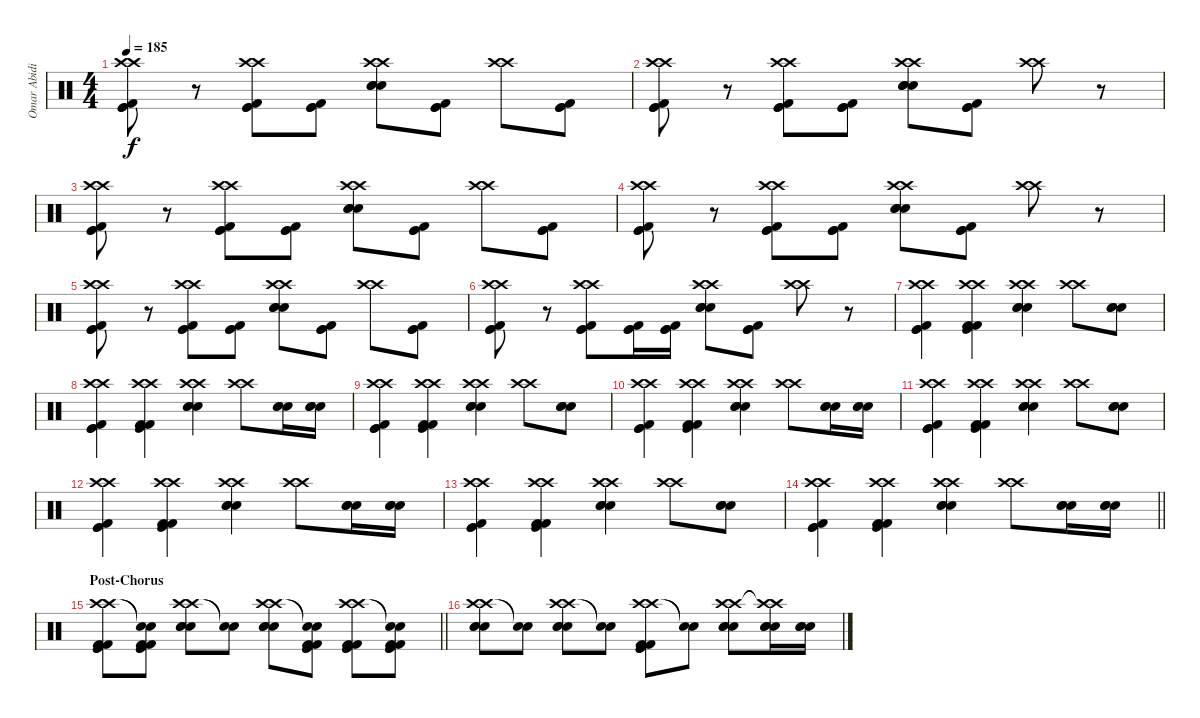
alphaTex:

\track ("Omar Abidi" "Omar Abidi") {instrument percussion}
\staff {score}
\articulation defaults
\ts (4 4)
\tempo 185
\clef neutral
\ks c
("Crash high (hit)" "Crash high (hit)" "Kick (hit) 2" "Kick (hit)" "Kick (hit)").8{dy f} r.8 ("Crash high (hit)" "Crash high (hit)" "Kick (hit) 2" "Kick (hit)" "Kick (hit)").8 ("Kick (hit) 2" "Kick (hit)" "Kick (hit)").8 ("Crash high (hit)" "Crash high (hit)" "Snare (hit) 2" "Electric Snare (hit)" "Snare (hit) 2").8 ("Kick (hit) 2" "Kick (hit)" "Kick (hit)").8 ("Crash high (hit)" "Crash high (hit)").8 ("Kick (hit) 2" "Kick (hit)" "Kick (hit)").8 |
("Crash high (hit)" "Crash high (hit)" "Kick (hit) 2" "Kick (hit)" "Kick (hit)").8 r.8 ("Crash high (hit)" "Crash high (hit)" "Kick (hit) 2" "Kick (hit)" "Kick (hit)").8 ("Kick (hit) 2" "Kick (hit)" "Kick (hit)").8 ("Crash high (hit)" "Crash high (hit)" "Snare (hit) 2" "Snare (hit) 2" "Electric Snare (hit)").8 ("Kick (hit) 2" "Kick (hit)" "Kick (hit)").8 ("Crash high (hit)" "Crash high (hit)").8 r.8 |
("Crash high (hit)" "Crash high (hit)" "Kick (hit) 2" "Kick (hit)" "Kick (hit)").8 r.8 ("Crash high (hit)" "Crash high (hit)" "Kick (hit) 2" "Kick (hit)" "Kick (hit)").8 ("Kick (hit) 2" "Kick (hit)" "Kick (hit)").8 ("Crash high (hit)" "Crash high (hit)" "Snare (hit) 2" "Electric Snare (hit)" "Snare (hit) 2").8 ("Kick (hit) 2" "Kick (hit)" "Kick (hit)").8 ("Crash high (hit)" "Crash high (hit)").8 ("Kick (hit) 2" "Kick (hit)" "Kick (hit)").8 |
("Crash high (hit)" "Crash high (hit)" "Kick (hit) 2" "Kick (hit)" "Kick (hit)").8 r.8 ("Crash high (hit)" "Crash high (hit)" "Kick (hit) 2" "Kick (hit)" "Kick (hit)").8 ("Kick (hit) 2" "Kick (hit)" "Kick (hit)").8 ("Crash high (hit)" "Crash high (hit)" "Snare (hit) 2" "Snare (hit) 2" "Electric Snare (hit)").8 ("Kick (hit) 2" "Kick (hit)" "Kick (hit)").8 ("Crash high (hit)" "Crash high (hit)").8 r.8 |
("Crash high (hit)" "Crash high (hit)" "Kick (hit) 2" "Kick (hit)" "Kick (hit)").8 r.8 ("Crash high (hit)" "Crash high (hit)" "Kick (hit) 2" "Kick (hit)" "Kick (hit)").8 ("Kick (hit) 2" "Kick (hit)" "Kick (hit)").8 ("Crash high (hit)" "Crash high (hit)" "Snare (hit) 2" "Electric Snare (hit)" "Snare (hit) 2").8 ("Kick (hit) 2" "Kick (hit)" "Kick (hit)").8 ("Crash high (hit)" "Crash high (hit)").8 ("Kick (hit) 2" "Kick (hit)" "Kick (hit)").8 |
("Crash high (hit)" "Crash high (hit)" "Kick (hit) 2" "Kick (hit)" "Kick (hit)").8 r.8 ("Crash high (hit)" "Crash high (hit)" "Kick (hit) 2" "Kick (hit)" "Kick (hit)").8 ("Kick (hit) 2" "Kick (hit)" "Kick (hit)").16 ("Kick (hit) 2" "Kick (hit)" "Kick (hit)").16 ("Crash high (hit)" "Crash high (hit)" "Snare (hit) 2" "Snare (hit) 2" "Electric Snare (hit)").8 ("Kick (hit) 2" "Kick (hit)" "Kick (hit)").8 ("Crash high (hit)" "Crash high (hit)").8 r.8 |
("Crash high (hit)" "Crash high (hit)" "Kick (hit) 2" "Kick (hit)" "Kick (hit)").4 ("Crash high (hit)" "Crash high (hit)" "Kick (hit) 2" "Kick (hit) 2" "Kick (hit)").4 ("Crash high (hit)" "Crash high (hit)" "Snare (hit) 2" "Snare (hit) 2" "Electric Snare (hit)").4 ("Crash high (hit)" "Crash high (hit)").8 ("Snare (hit) 2" "Snare (hit) 2" "Electric Snare (hit)").8 |
("Crash high (hit)" "Crash high (hit)" "Kick (hit) 2" "Kick (hit)" "Kick (hit)").4 ("Crash high (hit)" "Crash high (hit)" "Kick (hit) 2" "Kick (hit) 2" "Kick (hit)").4 ("Crash high (hit)" "Crash high (hit)" "Snare (hit) 2" "Snare (hit) 2" "Electric Snare (hit)").4 ("Crash high (hit)" "Crash high (hit)").8 ("Snare (hit) 2" "Snare (hit) 2" "Electric Snare (hit)").16 ("Snare (hit) 2" "Snare (hit) 2" "Electric Snare (hit)").16 |
("Crash high (hit)" "Crash high (hit)" "Kick (hit) 2" "Kick (hit)" "Kick (hit)").4 ("Crash high (hit)" "Crash high (hit)" "Kick (hit) 2" "Kick (hit) 2" "Kick (hit)").4 ("Crash high (hit)" "Crash high (hit)" "Snare (hit) 2" "Snare (hit) 2" "Electric Snare (hit)").4 ("Crash high (hit)" "Crash high (hit)").8 ("Snare (hit) 2" "Snare (hit) 2" "Electric Snare (hit)").8 |
("Crash high (hit)" "Crash high (hit)" "Kick (hit) 2" "Kick (hit)" "Kick (hit)").4 ("Crash high (hit)" "Crash high (hit)" "Kick (hit) 2" "Kick (hit) 2" "Kick (hit)").4 ("Crash high (hit)" "Crash high (hit)" "Snare (hit) 2" "Snare (hit) 2" "Electric Snare (hit)").4 ("Crash high (hit)" "Crash high (hit)").8 ("Snare (hit) 2" "Snare (hit) 2" "Electric Snare (hit)").16 ("Snare (hit) 2" "Snare (hit) 2" "Electric Snare (hit)").16 |
("Crash high (hit)" "Crash high (hit)" "Kick (hit) 2" "Kick (hit)" "Kick (hit)").4 ("Crash high (hit)" "Crash high (hit)" "Kick (hit) 2" "Kick (hit) 2" "Kick (hit)").4 ("Crash high (hit)" "Crash high (hit)" "Snare (hit) 2" "Snare (hit) 2" "Electric Snare (hit)").4 ("Crash high (hit)" "Crash high (hit)").8 ("Snare (hit) 2" "Snare (hit) 2" "Electric Snare (hit)").8 |
("Crash high (hit)" "Crash high (hit)" "Kick (hit) 2" "Kick (hit)" "Kick (hit)").4 ("Crash high (hit)" "Crash high (hit)" "Kick (hit) 2" "Kick (hit) 2" "Kick (hit)").4 ("Crash high (hit)" "Crash high (hit)" "Snare (hit) 2" "Snare (hit) 2" "Electric Snare (hit)").4 ("Crash high (hit)" "Crash high (hit)").8 ("Snare (hit) 2" "Snare (hit) 2" "Electric Snare (hit)").16 ("Snare (hit) 2" "Snare (hit) 2" "Electric Snare (hit)").16 |
("Crash high (hit)" "Crash high (hit)" "Kick (hit) 2" "Kick (hit)" "Kick (hit)").4 ("Crash high (hit)" "Crash high (hit)" "Kick (hit) 2" "Kick (hit) 2" "Kick (hit)").4 ("Crash high (hit)" "Crash high (hit)" "Snare (hit) 2" "Snare (hit) 2" "Electric Snare (hit)").4 ("Crash high (hit)" "Crash high (hit)").8 ("Snare (hit) 2" "Snare (hit) 2" "Electric Snare (hit)").8 |
\barLineRight lightlight
("Crash high (hit)" "Crash high (hit)" "Kick (hit) 2" "Kick (hit)" "Kick (hit)").4 ("Crash high (hit)" "Crash high (hit)" "Kick (hit) 2" "Kick (hit) 2" "Kick (hit)").4 ("Crash high (hit)" "Crash high (hit)" "Snare (hit) 2" "Snare (hit) 2" "Electric Snare (hit)").4 ("Crash high (hit)" "Crash high (hit)").8 ("Snare (hit) 2" "Snare (hit) 2" "Electric Snare (hit)").16 ("Snare (hit) 2" "Snare (hit) 2" "Electric Snare (hit)").16 |
\section ("" "Post-Chorus")
\barLineRight lightlight
("Crash high (hit)" "Crash high (hit)" "Kick (hit) 2" "Kick (hit) 2" "Kick (hit)" "Kick (hit)").8{volume 10} ("Snare (hit)"{t} "Snare (hit)"{t} "Kick (hit) 2" "Kick (hit) 2" "Kick (hit)" "Kick (hit)").8 ("Crash high (hit)" "Crash high (hit)" "Snare (hit) 2" "Electric Snare (hit)" "Electric Snare (hit)").8 ("Snare (hit)"{t} "Snare (hit)"{t}).8 ("Crash high (hit)" "Crash high (hit)" "Snare (hit) 2" "Electric Snare (hit)" "Electric Snare (hit)").8 ("Snare (hit)"{t} "Snare (hit)"{t} "Kick (hit) 2" "Kick (hit) 2" "Kick (hit)" "Kick (hit)").8 ("Crash high (hit)" "Crash high (hit)" "Kick (hit) 2" "Kick (hit) 2" "Kick (hit)" "Kick (hit)").8 ("Snare (hit)"{t} "Snare (hit)"{t} "Kick (hit) 2" "Kick (hit) 2" "Kick (hit)" "Kick (hit)").8 |
("Crash high (hit)" "Crash high (hit)" "Snare (hit) 2" "Electric Snare (hit)" "Electric Snare (hit)").8 ("Snare (hit)"{t} "Snare (hit)"{t}).8 ("Crash high (hit)" "Crash high (hit)" "Snare (hit) 2" "Electric Snare (hit)" "Electric Snare (hit)").8 ("Snare (hit)"{t} "Snare (hit)"{t}).8 ("Crash high (hit)" "Crash high (hit)" "Kick (hit) 2" "Kick (hit) 2" "Kick (hit)" "Kick (hit)").8 ("Snare (hit)"{t} "Snare (hit)"{t}).8 ("Crash high (hit)" "Crash high (hit)" "Snare (hit) 2" "Electric Snare (hit)" "Electric Snare (hit)").8 ("Crash high (hit)"{t} "Crash high (hit)"{t} "Snare (hit) 2" "Electric Snare (hit)" "Electric Snare (hit)").16 ("Snare (hit) 2" "Electric Snare (hit)" "Electric Snare (hit)").16
